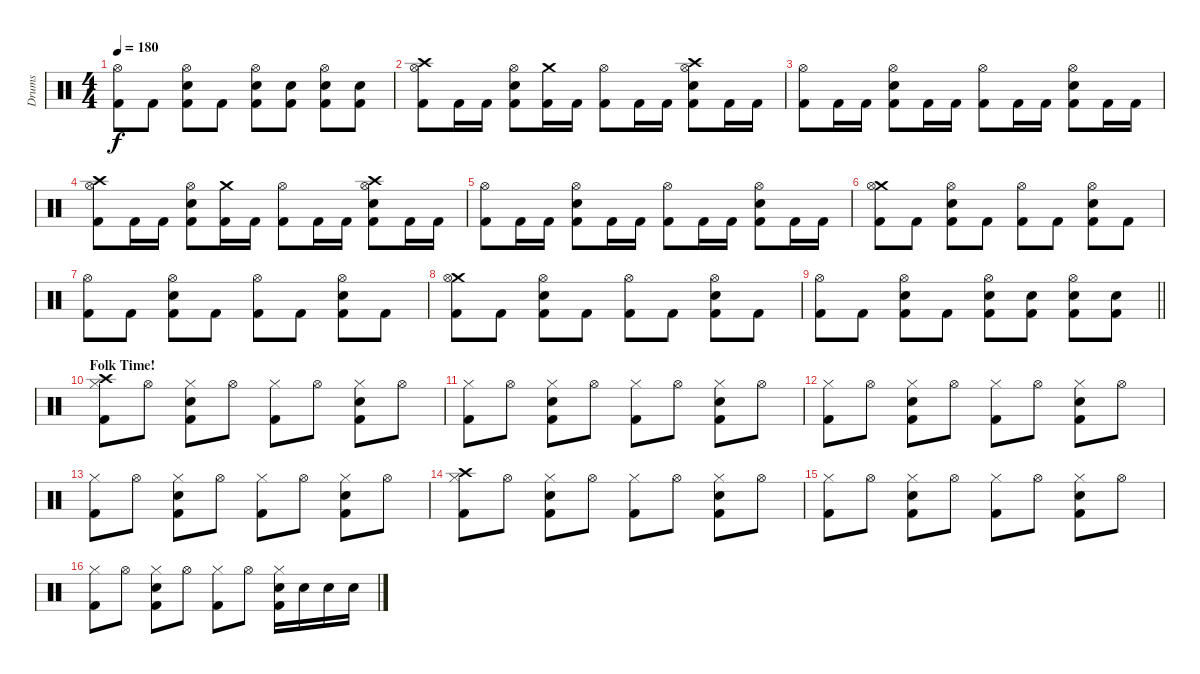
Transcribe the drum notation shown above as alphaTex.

\track ("Drums" "Drums") {instrument percussion}
\staff {score}
\articulation defaults
\ts (4 4)
\tempo 180
\clef neutral
\ks c
("Hi-Hat (open)" "Kick (hit) 2").8{dy f} "Kick (hit) 2".8 ("Hi-Hat (open)" "Snare (hit) 2" "Kick (hit) 2").8 "Kick (hit) 2".8 ("Hi-Hat (open)" "Snare (hit) 2" "Kick (hit) 2").8 ("Snare (hit) 2" "Kick (hit) 2").8 ("Hi-Hat (open)" "Snare (hit) 2" "Kick (hit) 2").8 ("Snare (hit) 2" "Kick (hit) 2").8 |
("Crash high (hit)" "Hi-Hat (open)" "Kick (hit) 2").8 "Kick (hit) 2".16 "Kick (hit) 2".16 ("Hi-Hat (open)" "Snare (hit) 2" "Kick (hit) 2").8 ("Crash medium (hit)" "Kick (hit) 2").16 "Kick (hit) 2".16 ("Hi-Hat (open)" "Kick (hit) 2").8 "Kick (hit) 2".16 "Kick (hit) 2".16 ("Crash high (hit)" "Hi-Hat (open)" "Snare (hit) 2" "Kick (hit) 2").8 "Kick (hit) 2".16 "Kick (hit) 2".16 |
("Hi-Hat (open)" "Kick (hit) 2").8 "Kick (hit) 2".16 "Kick (hit) 2".16 ("Hi-Hat (open)" "Snare (hit) 2" "Kick (hit) 2").8 "Kick (hit) 2".16 "Kick (hit) 2".16 ("Hi-Hat (open)" "Kick (hit) 2").8 "Kick (hit) 2".16 "Kick (hit) 2".16 ("Hi-Hat (open)" "Snare (hit) 2" "Kick (hit) 2").8 "Kick (hit) 2".16 "Kick (hit) 2".16 |
("Crash high (hit)" "Hi-Hat (open)" "Kick (hit) 2").8 "Kick (hit) 2".16 "Kick (hit) 2".16 ("Hi-Hat (open)" "Snare (hit) 2" "Kick (hit) 2").8 ("Crash medium (hit)" "Kick (hit) 2").16 "Kick (hit) 2".16 ("Hi-Hat (open)" "Kick (hit) 2").8 "Kick (hit) 2".16 "Kick (hit) 2".16 ("Crash high (hit)" "Hi-Hat (open)" "Snare (hit) 2" "Kick (hit) 2").8 "Kick (hit) 2".16 "Kick (hit) 2".16 |
("Hi-Hat (open)" "Kick (hit) 2").8 "Kick (hit) 2".16 "Kick (hit) 2".16 ("Hi-Hat (open)" "Snare (hit) 2" "Kick (hit) 2").8 "Kick (hit) 2".16 "Kick (hit) 2".16 ("Hi-Hat (open)" "Kick (hit) 2").8 "Kick (hit) 2".16 "Kick (hit) 2".16 ("Hi-Hat (open)" "Snare (hit) 2" "Kick (hit) 2").8 "Kick (hit) 2".16 "Kick (hit) 2".16 |
("Crash medium (hit)" "Hi-Hat (open)" "Kick (hit) 2").8 "Kick (hit) 2".8 ("Hi-Hat (open)" "Snare (hit) 2" "Kick (hit) 2").8 "Kick (hit) 2".8 ("Hi-Hat (open)" "Kick (hit) 2").8 "Kick (hit) 2".8 ("Hi-Hat (open)" "Snare (hit) 2" "Kick (hit) 2").8 "Kick (hit) 2".8 |
("Hi-Hat (open)" "Kick (hit) 2").8 "Kick (hit) 2".8 ("Hi-Hat (open)" "Snare (hit) 2" "Kick (hit) 2").8 "Kick (hit) 2".8 ("Hi-Hat (open)" "Kick (hit) 2").8 "Kick (hit) 2".8 ("Hi-Hat (open)" "Snare (hit) 2" "Kick (hit) 2").8 "Kick (hit) 2".8 |
("Crash medium (hit)" "Hi-Hat (open)" "Kick (hit) 2").8 "Kick (hit) 2".8 ("Hi-Hat (open)" "Snare (hit) 2" "Kick (hit) 2").8 "Kick (hit) 2".8 ("Hi-Hat (open)" "Kick (hit) 2").8 "Kick (hit) 2".8 ("Hi-Hat (open)" "Snare (hit) 2" "Kick (hit) 2").8 "Kick (hit) 2".8 |
\barLineRight lightlight
("Hi-Hat (open)" "Kick (hit) 2").8 "Kick (hit) 2".8 ("Hi-Hat (open)" "Snare (hit) 2" "Kick (hit) 2").8 "Kick (hit) 2".8 ("Hi-Hat (open)" "Snare (hit) 2" "Kick (hit) 2").8 ("Snare (hit) 2" "Kick (hit) 2").8 ("Hi-Hat (open)" "Snare (hit) 2" "Kick (hit) 2").8 ("Snare (hit) 2" "Kick (hit) 2").8 |
\section ("" "Folk Time!")
("Crash high (hit)" "Hi-Hat (closed)" "Kick (hit) 2").8 "Hi-Hat (open)".8 ("Hi-Hat (closed)" "Snare (hit) 2" "Kick (hit) 2").8 "Hi-Hat (open)".8 ("Hi-Hat (closed)" "Kick (hit) 2").8 "Hi-Hat (open)".8 ("Hi-Hat (closed)" "Snare (hit) 2" "Kick (hit) 2").8 "Hi-Hat (open)".8 |
("Hi-Hat (closed)" "Kick (hit) 2").8 "Hi-Hat (open)".8 ("Hi-Hat (closed)" "Snare (hit) 2" "Kick (hit) 2").8 "Hi-Hat (open)".8 ("Hi-Hat (closed)" "Kick (hit) 2").8 "Hi-Hat (open)".8 ("Hi-Hat (closed)" "Snare (hit) 2" "Kick (hit) 2").8 "Hi-Hat (open)".8 |
("Hi-Hat (closed)" "Kick (hit) 2").8 "Hi-Hat (open)".8 ("Hi-Hat (closed)" "Snare (hit) 2" "Kick (hit) 2").8 "Hi-Hat (open)".8 ("Hi-Hat (closed)" "Kick (hit) 2").8 "Hi-Hat (open)".8 ("Hi-Hat (closed)" "Snare (hit) 2" "Kick (hit) 2").8 "Hi-Hat (open)".8 |
("Hi-Hat (closed)" "Kick (hit) 2").8 "Hi-Hat (open)".8 ("Hi-Hat (closed)" "Snare (hit) 2" "Kick (hit) 2").8 "Hi-Hat (open)".8 ("Hi-Hat (closed)" "Kick (hit) 2").8 "Hi-Hat (open)".8 ("Hi-Hat (closed)" "Snare (hit) 2" "Kick (hit) 2").8 "Hi-Hat (open)".8 |
("Crash high (hit)" "Hi-Hat (closed)" "Kick (hit) 2").8 "Hi-Hat (open)".8 ("Hi-Hat (closed)" "Snare (hit) 2" "Kick (hit) 2").8 "Hi-Hat (open)".8 ("Hi-Hat (closed)" "Kick (hit) 2").8 "Hi-Hat (open)".8 ("Hi-Hat (closed)" "Snare (hit) 2" "Kick (hit) 2").8 "Hi-Hat (open)".8 |
("Hi-Hat (closed)" "Kick (hit) 2").8 "Hi-Hat (open)".8 ("Hi-Hat (closed)" "Snare (hit) 2" "Kick (hit) 2").8 "Hi-Hat (open)".8 ("Hi-Hat (closed)" "Kick (hit) 2").8 "Hi-Hat (open)".8 ("Hi-Hat (closed)" "Snare (hit) 2" "Kick (hit) 2").8 "Hi-Hat (open)".8 |
("Hi-Hat (closed)" "Kick (hit) 2").8 "Hi-Hat (open)".8 ("Hi-Hat (closed)" "Snare (hit) 2" "Kick (hit) 2").8 "Hi-Hat (open)".8 ("Hi-Hat (closed)" "Kick (hit) 2").8 "Hi-Hat (open)".8 ("Hi-Hat (closed)" "Snare (hit) 2" "Kick (hit) 2").16 "Snare (hit) 2".16 "Snare (hit) 2".16 "Snare (hit) 2".16
